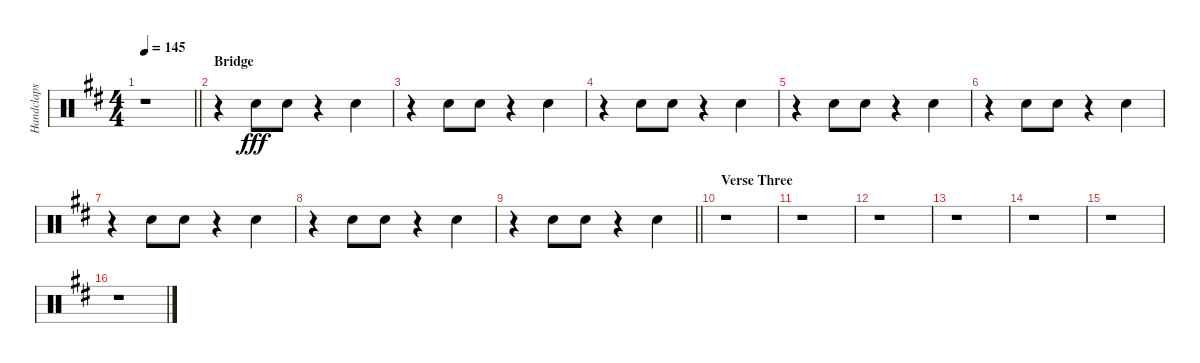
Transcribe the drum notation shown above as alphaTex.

\track ("Handclaps" "Handclaps") {instrument percussion}
\staff {score}
\articulation defaults
\ts (4 4)
\tempo 145
\clef neutral
\barLineRight lightlight
\ks d
r.1{dy fff} |
\section ("" "Bridge")
r.4 "Hand Clap (hit)".8 "Hand Clap (hit)".8 r.4 "Hand Clap (hit)".4 |
r.4 "Hand Clap (hit)".8 "Hand Clap (hit)".8 r.4 "Hand Clap (hit)".4 |
r.4 "Hand Clap (hit)".8 "Hand Clap (hit)".8 r.4 "Hand Clap (hit)".4 |
r.4 "Hand Clap (hit)".8 "Hand Clap (hit)".8 r.4 "Hand Clap (hit)".4 |
r.4 "Hand Clap (hit)".8 "Hand Clap (hit)".8 r.4 "Hand Clap (hit)".4 |
r.4 "Hand Clap (hit)".8 "Hand Clap (hit)".8 r.4 "Hand Clap (hit)".4 |
r.4 "Hand Clap (hit)".8 "Hand Clap (hit)".8 r.4 "Hand Clap (hit)".4 |
\barLineRight lightlight
r.4 "Hand Clap (hit)".8 "Hand Clap (hit)".8 r.4 "Hand Clap (hit)".4 |
\section ("" "Verse Three")
r.1 |
r.1 |
r.1 |
r.1 |
r.1 |
r.1 |
r.1
